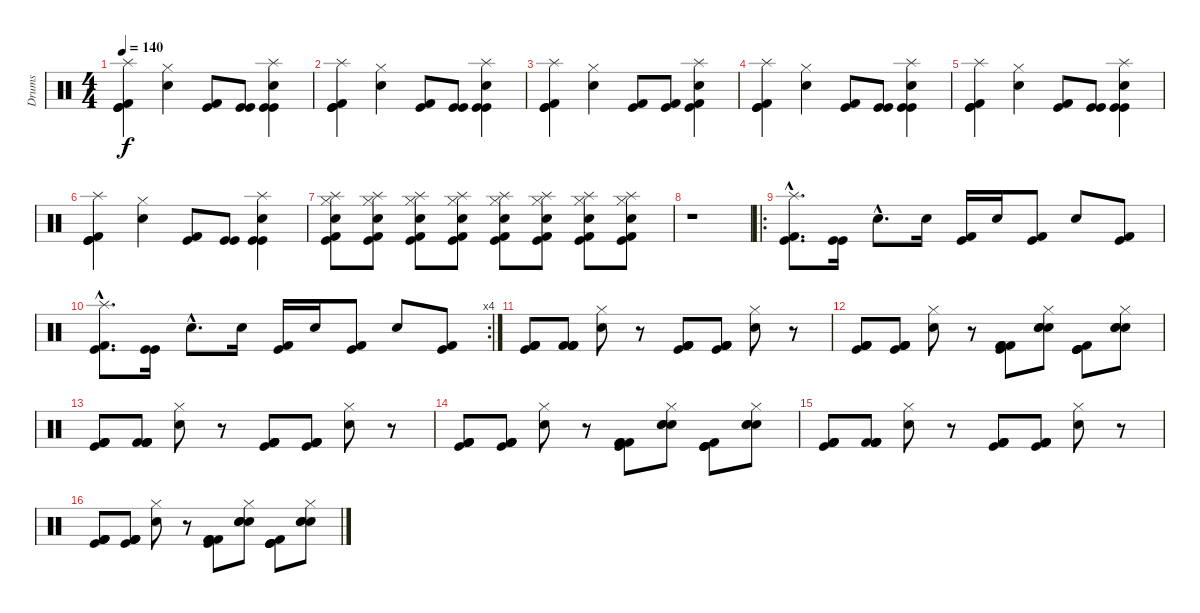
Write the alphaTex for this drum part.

\track ("Drums" "Drums") {instrument percussion}
\staff {score}
\articulation defaults
\ts (4 4)
\tempo 140
\clef neutral
\ks c
("Splash (hit)" "Kick (hit)" "Kick (hit)" "Kick (hit) 2").4{dy f} ("Hi-Hat (closed)" "Snare (hit) 2").4 ("Kick (hit)" "Kick (hit) 2").8 ("Kick (hit)" "Kick (hit)").8 ("Splash (hit)" "Snare (hit) 2" "Kick (hit)" "Kick (hit)").4 |
("Splash (hit)" "Kick (hit)" "Kick (hit)" "Kick (hit) 2").4 ("Hi-Hat (closed)" "Snare (hit) 2").4 ("Kick (hit)" "Kick (hit) 2").8 ("Kick (hit)" "Kick (hit)").8 ("Splash (hit)" "Snare (hit) 2" "Kick (hit)" "Kick (hit)").4 |
("Splash (hit)" "Kick (hit)" "Kick (hit)" "Kick (hit) 2").4 ("Hi-Hat (closed)" "Snare (hit) 2").4 ("Kick (hit)" "Kick (hit) 2").8 ("Kick (hit)" "Kick (hit) 2").8 ("Splash (hit)" "Snare (hit) 2" "Kick (hit)" "Kick (hit) 2").4 |
("Splash (hit)" "Kick (hit)" "Kick (hit)" "Kick (hit) 2").4 ("Hi-Hat (closed)" "Snare (hit) 2").4 ("Kick (hit)" "Kick (hit) 2").8 ("Kick (hit)" "Kick (hit)").8 ("Splash (hit)" "Snare (hit) 2" "Kick (hit)" "Kick (hit)").4 |
("Splash (hit)" "Kick (hit)" "Kick (hit)" "Kick (hit) 2").4 ("Hi-Hat (closed)" "Snare (hit) 2").4 ("Kick (hit)" "Kick (hit) 2").8 ("Kick (hit)" "Kick (hit)").8 ("Splash (hit)" "Snare (hit) 2" "Kick (hit)" "Kick (hit)").4 |
("Splash (hit)" "Kick (hit)" "Kick (hit)" "Kick (hit) 2").4 ("Hi-Hat (closed)" "Snare (hit) 2").4 ("Kick (hit)" "Kick (hit) 2").8 ("Kick (hit)" "Kick (hit)").8 ("Splash (hit)" "Snare (hit) 2" "Kick (hit)" "Kick (hit)").4 |
("Splash (hit)" "Snare (hit) 2" "Hi-Hat (closed)" "Kick (hit)" "Kick (hit) 2").8 ("Splash (hit)" "Hi-Hat (closed)" "Snare (hit) 2" "Kick (hit)" "Kick (hit) 2").8 ("Splash (hit)" "Snare (hit) 2" "Hi-Hat (closed)" "Kick (hit)" "Kick (hit) 2").8 ("Splash (hit)" "Snare (hit) 2" "Hi-Hat (closed)" "Kick (hit)" "Kick (hit) 2").8 ("Splash (hit)" "Snare (hit) 2" "Hi-Hat (closed)" "Kick (hit)" "Kick (hit) 2").8 ("Splash (hit)" "Snare (hit) 2" "Hi-Hat (closed)" "Kick (hit)" "Kick (hit) 2").8 ("Splash (hit)" "Snare (hit) 2" "Hi-Hat (closed)" "Kick (hit)" "Kick (hit) 2").8 ("Splash (hit)" "Snare (hit) 2" "Hi-Hat (closed)" "Kick (hit)" "Kick (hit) 2").8 |
r.1 |
\ro
("Splash (hit)"{hac} "Kick (hit)"{hac} "Kick (hit) 2"{hac}).8{d} ("Kick (hit)" "Kick (hit)").16 "Snare (hit) 2"{hac}.8{d} "Snare (hit) 2".16 ("Kick (hit)" "Kick (hit) 2").16 "Snare (hit) 2".16 ("Kick (hit)" "Kick (hit) 2").8 "Snare (hit) 2".8 ("Kick (hit) 2" "Kick (hit)").8 |
\rc 4
("Splash (hit)"{hac} "Kick (hit)"{hac} "Kick (hit) 2"{hac}).8{d} ("Kick (hit)" "Kick (hit)").16 "Snare (hit) 2"{hac}.8{d} "Snare (hit) 2".16 ("Kick (hit)" "Kick (hit) 2").16 "Snare (hit) 2".16 ("Kick (hit)" "Kick (hit) 2").8 "Snare (hit) 2".8 ("Kick (hit)" "Kick (hit) 2").8 |
("Kick (hit) 2" "Kick (hit) 2" "Kick (hit)" "Kick (hit) 2").8 ("Kick (hit) 2" "Kick (hit) 2" "Kick (hit) 2" "Kick (hit) 2").8 ("Snare (hit) 2" "Hi-Hat (closed)").8 r.8 ("Kick (hit) 2" "Kick (hit) 2" "Kick (hit)" "Kick (hit) 2").8 ("Kick (hit) 2" "Kick (hit) 2" "Kick (hit)" "Kick (hit) 2").8 ("Snare (hit) 2" "Hi-Hat (closed)").8 r.8 |
("Kick (hit) 2" "Kick (hit) 2" "Kick (hit)" "Kick (hit) 2").8 ("Kick (hit) 2" "Kick (hit) 2" "Kick (hit)" "Kick (hit) 2").8 ("Snare (hit) 2" "Hi-Hat (closed)").8 r.8 ("Kick (hit) 2" "Kick (hit) 2" "Kick (hit)" "Kick (hit) 2").8 ("Snare (hit) 2" "Snare (hit) 2" "Snare (hit) 2" "Hi-Hat (closed)").8 ("Kick (hit)" "Kick (hit)" "Kick (hit)" "Kick (hit) 2").8 ("Snare (hit) 2" "Snare (hit) 2" "Snare (hit) 2" "Hi-Hat (closed)").8 |
("Kick (hit) 2" "Kick (hit) 2" "Kick (hit)" "Kick (hit) 2").8 ("Kick (hit) 2" "Kick (hit) 2" "Kick (hit) 2" "Kick (hit) 2").8 ("Snare (hit) 2" "Hi-Hat (closed)").8 r.8 ("Kick (hit) 2" "Kick (hit) 2" "Kick (hit)" "Kick (hit) 2").8 ("Kick (hit) 2" "Kick (hit) 2" "Kick (hit)" "Kick (hit) 2").8 ("Snare (hit) 2" "Hi-Hat (closed)").8 r.8 |
("Kick (hit) 2" "Kick (hit) 2" "Kick (hit)" "Kick (hit) 2").8 ("Kick (hit) 2" "Kick (hit) 2" "Kick (hit)" "Kick (hit) 2").8 ("Snare (hit) 2" "Hi-Hat (closed)").8 r.8 ("Kick (hit) 2" "Kick (hit) 2" "Kick (hit)" "Kick (hit) 2").8 ("Snare (hit) 2" "Snare (hit) 2" "Snare (hit) 2" "Hi-Hat (closed)").8 ("Kick (hit)" "Kick (hit)" "Kick (hit)" "Kick (hit) 2").8 ("Snare (hit) 2" "Snare (hit) 2" "Snare (hit) 2" "Hi-Hat (closed)").8 |
("Kick (hit) 2" "Kick (hit) 2" "Kick (hit)" "Kick (hit) 2").8 ("Kick (hit) 2" "Kick (hit) 2" "Kick (hit) 2" "Kick (hit) 2").8 ("Snare (hit) 2" "Hi-Hat (closed)").8 r.8 ("Kick (hit) 2" "Kick (hit) 2" "Kick (hit)" "Kick (hit) 2").8 ("Kick (hit) 2" "Kick (hit) 2" "Kick (hit)" "Kick (hit) 2").8 ("Snare (hit) 2" "Hi-Hat (closed)").8 r.8 |
("Kick (hit) 2" "Kick (hit) 2" "Kick (hit)" "Kick (hit) 2").8 ("Kick (hit) 2" "Kick (hit) 2" "Kick (hit)" "Kick (hit) 2").8 ("Snare (hit) 2" "Hi-Hat (closed)").8 r.8 ("Kick (hit) 2" "Kick (hit) 2" "Kick (hit)" "Kick (hit) 2").8 ("Snare (hit) 2" "Snare (hit) 2" "Snare (hit) 2" "Hi-Hat (closed)").8 ("Kick (hit)" "Kick (hit)" "Kick (hit)" "Kick (hit) 2").8 ("Snare (hit) 2" "Snare (hit) 2" "Snare (hit) 2" "Hi-Hat (closed)").8
